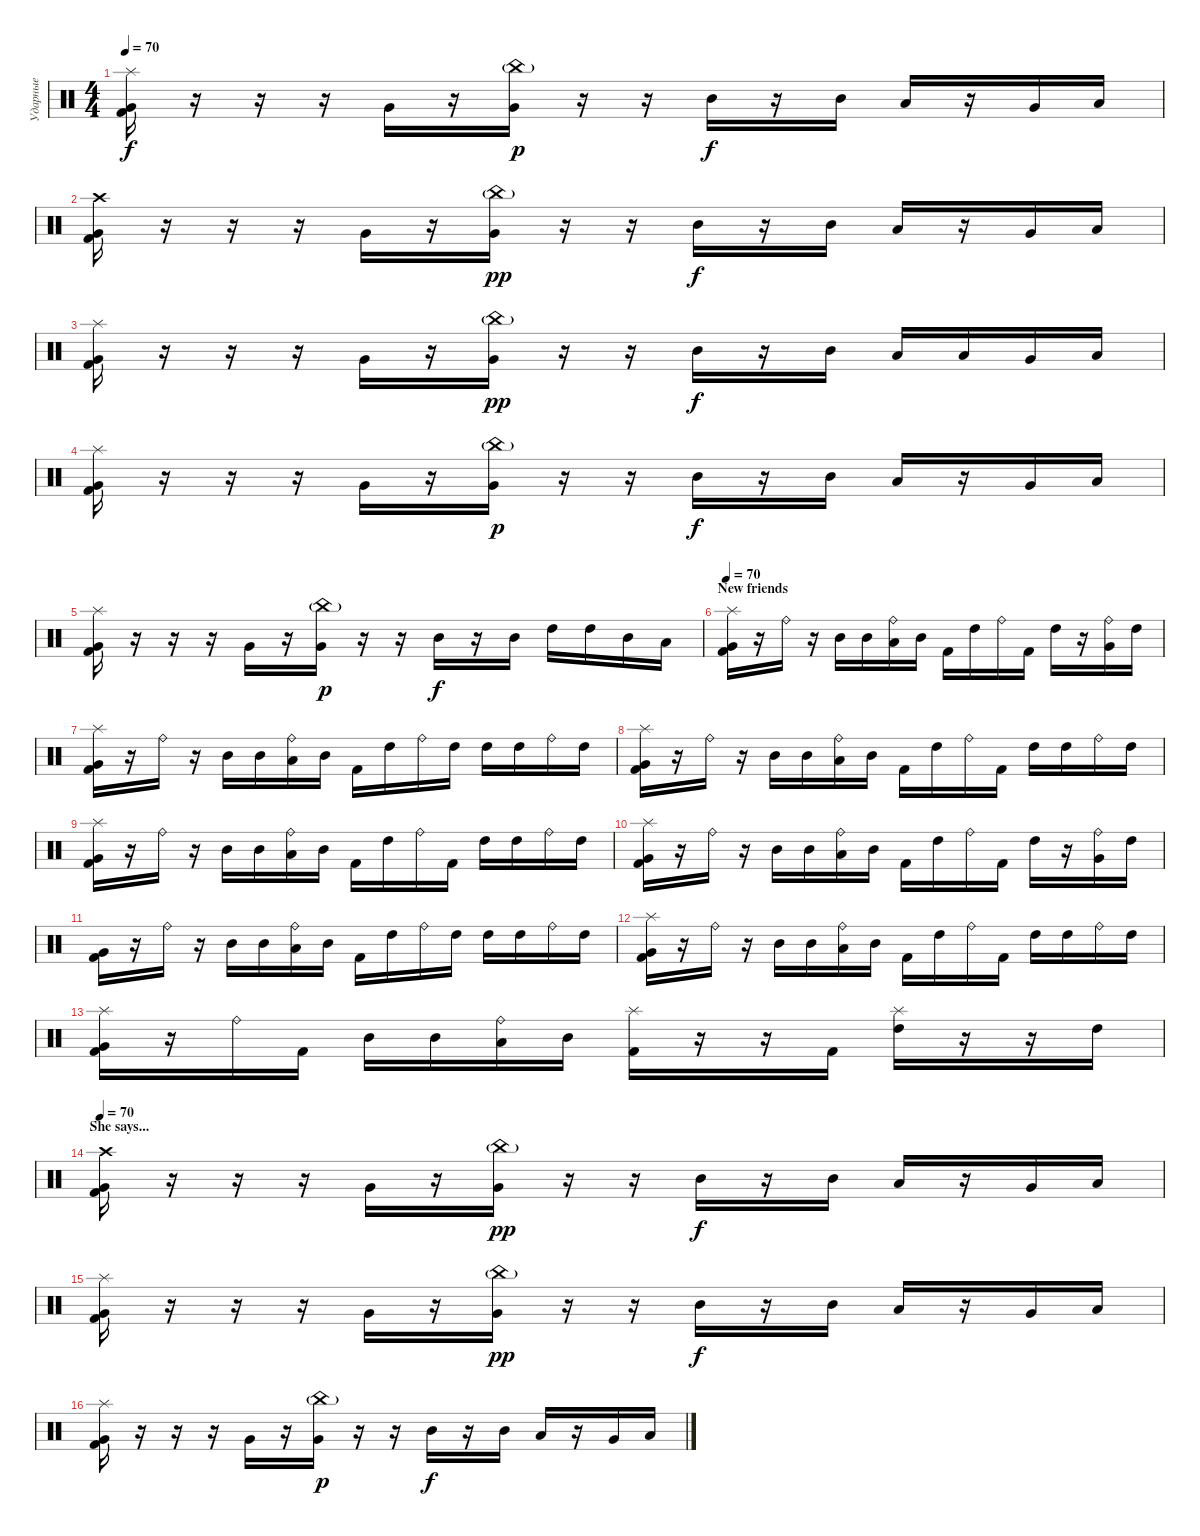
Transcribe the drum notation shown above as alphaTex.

\track ("Ударные" "Ударные") {instrument percussion}
\staff {score}
\articulation defaults
\ts (4 4)
\tempo 70
\clef neutral
\ks c
("Splash (hit)" "Very Low Tom (hit)" "Kick (hit) 2").16{dy f} r.16 r.16 r.16 "Very Low Tom (hit)".16 r.16 ("China (hit)"{g} "Very Low Tom (hit)").16{dy p} r.16 r.16 "Mid Tom (hit)".16{dy f} r.16 "Mid Tom (hit)".16 "Low Tom (hit)".16 r.16 "Very Low Tom (hit)".16 "Low Tom (hit)".16 |
("Crash high (hit)" "Very Low Tom (hit)" "Kick (hit) 2").16 r.16 r.16 r.16 "Very Low Tom (hit)".16 r.16 ("China (hit)"{g} "Very Low Tom (hit)").16{dy pp} r.16 r.16 "Mid Tom (hit)".16{dy f} r.16 "Mid Tom (hit)".16 "Low Tom (hit)".16 r.16 "Very Low Tom (hit)".16 "Low Tom (hit)".16 |
("Splash (hit)" "Very Low Tom (hit)" "Kick (hit) 2").16 r.16 r.16 r.16 "Very Low Tom (hit)".16 r.16 ("China (hit)"{g} "Very Low Tom (hit)").16{dy pp} r.16 r.16 "Mid Tom (hit)".16{dy f} r.16 "Mid Tom (hit)".16 "Low Tom (hit)".16 "Low Tom (hit)".16 "Very Low Tom (hit)".16 "Low Tom (hit)".16 |
("Splash (hit)" "Very Low Tom (hit)" "Kick (hit) 2").16 r.16 r.16 r.16 "Very Low Tom (hit)".16 r.16 ("China (hit)"{g} "Very Low Tom (hit)").16{dy p} r.16 r.16 "Mid Tom (hit)".16{dy f} r.16 "Mid Tom (hit)".16 "Low Tom (hit)".16 r.16 "Very Low Tom (hit)".16 "Low Tom (hit)".16 |
("Splash (hit)" "Very Low Tom (hit)" "Kick (hit) 2").16 r.16 r.16 r.16 "Very Low Tom (hit)".16 r.16 ("China (hit)"{g} "Very Low Tom (hit)").16{dy p} r.16 r.16 "Mid Tom (hit)".16{dy f} r.16 "Mid Tom (hit)".16 "High Tom (hit)".16 "High Tom (hit)".16 "Mid Tom (hit)".16 "Low Tom (hit)".16 |
\section ("" "New friends")
\tempo 70
("Splash (hit)" "Very Low Tom (hit)" "Kick (hit) 2").16 r.16 "Ride (bell)".16 r.16 "Mid Tom (hit)".16 "Mid Tom (hit)".16 ("Ride (bell)" "Low Tom (hit)").16 "Mid Tom (hit)".16 "Kick (hit) 2".16 "High Tom (hit)".16 "Ride (bell)".16 "Kick (hit) 2".16 "High Tom (hit)".16 r.16 ("Ride (bell)" "Very Low Tom (hit)").16 "High Tom (hit)".16 |
("Splash (hit)" "Very Low Tom (hit)" "Kick (hit) 2").16 r.16 "Ride (bell)".16 r.16 "Mid Tom (hit)".16 "Mid Tom (hit)".16 ("Ride (bell)" "Low Tom (hit)").16 "Mid Tom (hit)".16 "Kick (hit) 2".16 "High Tom (hit)".16 "Ride (bell)".16 "High Tom (hit)".16 "High Tom (hit)".16 "High Tom (hit)".16 "Ride (bell)".16 "High Tom (hit)".16 |
("Splash (hit)" "Very Low Tom (hit)" "Kick (hit) 2").16 r.16 "Ride (bell)".16 r.16 "Mid Tom (hit)".16 "Mid Tom (hit)".16 ("Ride (bell)" "Low Tom (hit)").16 "Mid Tom (hit)".16 "Kick (hit) 2".16 "High Tom (hit)".16 "Ride (bell)".16 "Kick (hit) 2".16 "High Tom (hit)".16 "High Tom (hit)".16 "Ride (bell)".16 "High Tom (hit)".16 |
("Splash (hit)" "Very Low Tom (hit)" "Kick (hit) 2").16 r.16 "Ride (bell)".16 r.16 "Mid Tom (hit)".16 "Mid Tom (hit)".16 ("Ride (bell)" "Low Tom (hit)").16 "Mid Tom (hit)".16 "Kick (hit) 2".16 "High Tom (hit)".16 "Ride (bell)".16 "Kick (hit) 2".16 "High Tom (hit)".16 "High Tom (hit)".16 "Ride (bell)".16 "High Tom (hit)".16 |
("Splash (hit)" "Very Low Tom (hit)" "Kick (hit) 2").16 r.16 "Ride (bell)".16 r.16 "Mid Tom (hit)".16 "Mid Tom (hit)".16 ("Ride (bell)" "Low Tom (hit)").16 "Mid Tom (hit)".16 "Kick (hit) 2".16 "High Tom (hit)".16 "Ride (bell)".16 "Kick (hit) 2".16 "High Tom (hit)".16 r.16 ("Ride (bell)" "Very Low Tom (hit)").16 "High Tom (hit)".16 |
("Very Low Tom (hit)" "Kick (hit) 2").16 r.16 "Ride (bell)".16 r.16 "Mid Tom (hit)".16 "Mid Tom (hit)".16 ("Ride (bell)" "Low Tom (hit)").16 "Mid Tom (hit)".16 "Kick (hit) 2".16 "High Tom (hit)".16 "Ride (bell)".16 "High Tom (hit)".16 "High Tom (hit)".16 "High Tom (hit)".16 "Ride (bell)".16 "High Tom (hit)".16 |
("Splash (hit)" "Very Low Tom (hit)" "Kick (hit) 2").16 r.16 "Ride (bell)".16 r.16 "Mid Tom (hit)".16 "Mid Tom (hit)".16 ("Ride (bell)" "Low Tom (hit)").16 "Mid Tom (hit)".16 "Kick (hit) 2".16 "High Tom (hit)".16 "Ride (bell)".16 "Kick (hit) 2".16 "High Tom (hit)".16 "High Tom (hit)".16 "Ride (bell)".16 "High Tom (hit)".16 |
("Splash (hit)" "Very Low Tom (hit)" "Kick (hit) 2").16 r.16 "Ride (bell)".16 "Kick (hit) 2".16 "Mid Tom (hit)".16 "Mid Tom (hit)".16 ("Ride (bell)" "Low Tom (hit)").16 "Mid Tom (hit)".16 ("Splash (hit)" "Kick (hit) 2").16 r.16 r.16 "Kick (hit) 2".16 ("Splash (hit)" "High Tom (hit)").16 r.16 r.16 "High Tom (hit)".16 |
\section ("" "She says...")
\tempo 70
("Crash high (hit)" "Very Low Tom (hit)" "Kick (hit) 2").16 r.16 r.16 r.16 "Very Low Tom (hit)".16 r.16 ("China (hit)"{g} "Very Low Tom (hit)").16{dy pp} r.16 r.16 "Mid Tom (hit)".16{dy f} r.16 "Mid Tom (hit)".16 "Low Tom (hit)".16 r.16 "Very Low Tom (hit)".16 "Low Tom (hit)".16 |
("Splash (hit)" "Very Low Tom (hit)" "Kick (hit) 2").16 r.16 r.16 r.16 "Very Low Tom (hit)".16 r.16 ("China (hit)"{g} "Very Low Tom (hit)").16{dy pp} r.16 r.16 "Mid Tom (hit)".16{dy f} r.16 "Mid Tom (hit)".16 "Low Tom (hit)".16 r.16 "Very Low Tom (hit)".16 "Low Tom (hit)".16 |
("Splash (hit)" "Very Low Tom (hit)" "Kick (hit) 2").16 r.16 r.16 r.16 "Very Low Tom (hit)".16 r.16 ("China (hit)"{g} "Very Low Tom (hit)").16{dy p} r.16 r.16 "Mid Tom (hit)".16{dy f} r.16 "Mid Tom (hit)".16 "Low Tom (hit)".16 r.16 "Very Low Tom (hit)".16 "Low Tom (hit)".16
